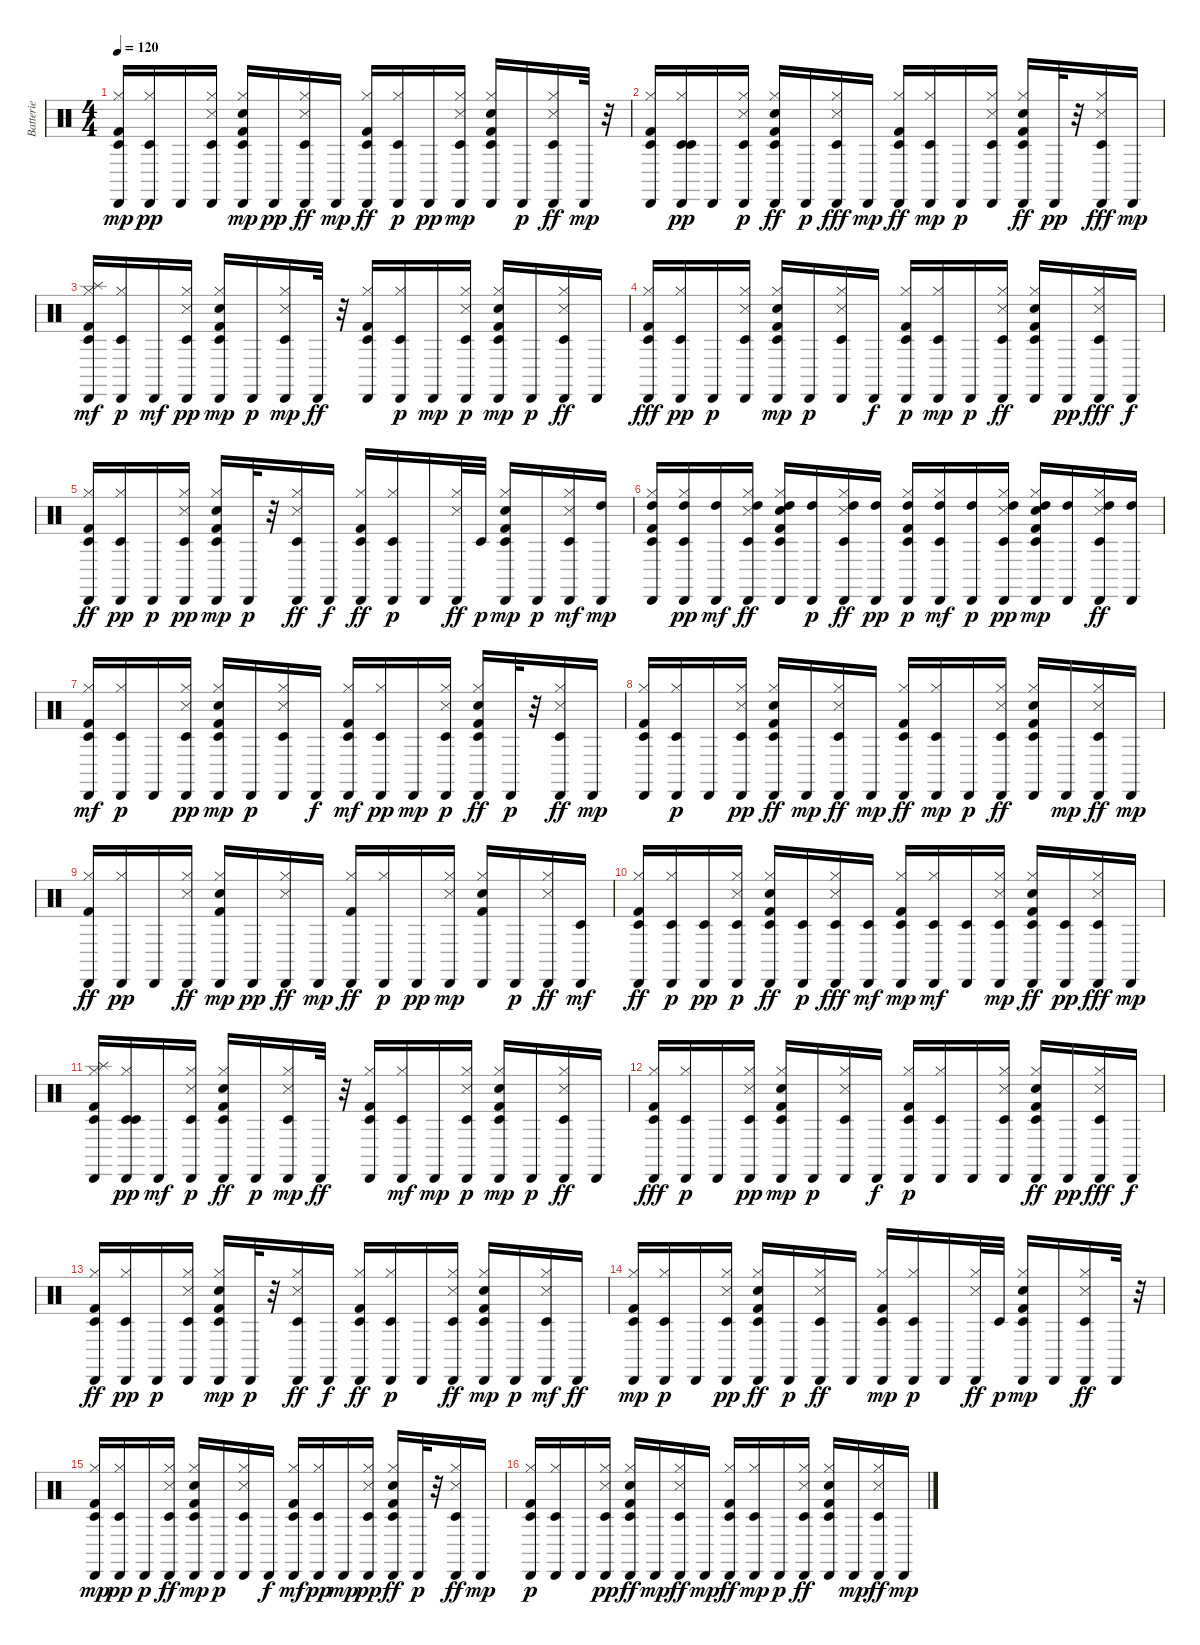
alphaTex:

\track ("Batterie" "Batterie") {instrument percussion}
\staff {score}
\articulation defaults
\ts (4 4)
\tempo 120
\clef neutral
\ks c
("Kick (hit) 2" "Cabasa (hit)" "Hi-Hat (closed)" "Timbale low (hit)").16{dy mp} ("Hi-Hat (closed)" "Timbale low (hit)" "Cabasa (hit)").16{dy pp} "Cabasa (hit)".16 ("Snare (side stick) 3" "Cabasa (hit)" "Hi-Hat (closed)" "Timbale low (hit)").16 ("Timbale low (hit)" "Kick (hit) 2" "Hi-Hat (closed)" "Cabasa (hit)" "Hand Clap (hit)").16{dy mp} "Cabasa (hit)".16{dy pp} ("Cabasa (hit)" "Timbale low (hit)" "Snare (side stick) 3" "Hi-Hat (closed)").16{dy ff} "Cabasa (hit)".16{dy mp} ("Timbale low (hit)" "Kick (hit) 2" "Cabasa (hit)" "Hi-Hat (closed)").16{dy ff} ("Hi-Hat (closed)" "Timbale low (hit)" "Cabasa (hit)").16{dy p} "Cabasa (hit)".16{dy pp} ("Snare (side stick) 3" "Timbale low (hit)" "Cabasa (hit)" "Hi-Hat (closed)").16{dy mp} ("Timbale low (hit)" "Kick (hit) 2" "Hand Clap (hit)" "Cabasa (hit)" "Hi-Hat (closed)").16 "Cabasa (hit)".16{dy p} ("Cabasa (hit)" "Hi-Hat (closed)" "Snare (side stick) 3" "Timbale low (hit)").16{dy ff} "Cabasa (hit)".32{dy mp} r.32 |
("Kick (hit) 2" "Cabasa (hit)" "Hi-Hat (closed)" "Timbale low (hit)").16 ("Hi-Hat (closed)" "Cabasa (hit)" "Timbale low (hit)" "Timbale low (hit)").16{dy pp} "Cabasa (hit)".16 ("Cabasa (hit)" "Snare (side stick) 3" "Hi-Hat (closed)" "Timbale low (hit)").16{dy p} ("Timbale low (hit)" "Hi-Hat (closed)" "Kick (hit) 2" "Cabasa (hit)" "Hand Clap (hit)").16{dy ff} "Cabasa (hit)".16{dy p} ("Timbale low (hit)" "Cabasa (hit)" "Hi-Hat (closed)" "Snare (side stick) 3").16{dy fff} "Cabasa (hit)".16{dy mp} ("Timbale low (hit)" "Kick (hit) 2" "Cabasa (hit)" "Hi-Hat (closed)").16{dy ff} ("Hi-Hat (closed)" "Timbale low (hit)" "Cabasa (hit)").16{dy mp} "Cabasa (hit)".16{dy p} ("Hi-Hat (closed)" "Cabasa (hit)" "Snare (side stick) 3" "Timbale low (hit)").16 ("Hi-Hat (closed)" "Timbale low (hit)" "Kick (hit) 2" "Cabasa (hit)" "Hand Clap (hit)").16{dy ff} "Cabasa (hit)".32{dy pp} r.32 ("Cabasa (hit)" "Hi-Hat (closed)" "Timbale low (hit)" "Snare (side stick) 3").16{dy fff} "Cabasa (hit)".16{dy mp} |
("Hi-Hat (closed)" "Splash (hit)" "Kick (hit) 2" "Cabasa (hit)" "Timbale low (hit)").16{dy mf} ("Hi-Hat (closed)" "Cabasa (hit)" "Timbale low (hit)").16{dy p} "Cabasa (hit)".16{dy mf} ("Cabasa (hit)" "Snare (side stick) 3" "Hi-Hat (closed)" "Timbale low (hit)").16{dy pp} ("Hand Clap (hit)" "Hi-Hat (closed)" "Cabasa (hit)" "Kick (hit) 2" "Timbale low (hit)").16{dy mp} "Cabasa (hit)".16{dy p} ("Cabasa (hit)" "Snare (side stick) 3" "Hi-Hat (closed)" "Timbale low (hit)").16{dy mp} "Cabasa (hit)".32{dy ff} r.32 ("Cabasa (hit)" "Kick (hit) 2" "Timbale low (hit)" "Hi-Hat (closed)").16 ("Cabasa (hit)" "Hi-Hat (closed)" "Timbale low (hit)").16{dy p} "Cabasa (hit)".16{dy mp} ("Snare (side stick) 3" "Cabasa (hit)" "Timbale low (hit)" "Hi-Hat (closed)").16{dy p} ("Timbale low (hit)" "Cabasa (hit)" "Hand Clap (hit)" "Kick (hit) 2" "Hi-Hat (closed)").16{dy mp} "Cabasa (hit)".16{dy p} ("Timbale low (hit)" "Cabasa (hit)" "Snare (side stick) 3" "Hi-Hat (closed)").16{dy ff} "Cabasa (hit)".16 |
("Timbale low (hit)" "Cabasa (hit)" "Kick (hit) 2" "Hi-Hat (closed)").16{dy fff} ("Hi-Hat (closed)" "Timbale low (hit)" "Cabasa (hit)").16{dy pp} "Cabasa (hit)".16{dy p} ("Cabasa (hit)" "Snare (side stick) 3" "Timbale low (hit)" "Hi-Hat (closed)").16 ("Timbale low (hit)" "Kick (hit) 2" "Hi-Hat (closed)" "Cabasa (hit)" "Hand Clap (hit)").16{dy mp} "Cabasa (hit)".16{dy p} ("Timbale low (hit)" "Hi-Hat (closed)" "Cabasa (hit)" "Snare (side stick) 3").16 "Cabasa (hit)".16{dy f} ("Timbale low (hit)" "Kick (hit) 2" "Hi-Hat (closed)" "Cabasa (hit)").16{dy p} ("Timbale low (hit)" "Hi-Hat (closed)" "Cabasa (hit)").16{dy mp} "Cabasa (hit)".16{dy p} ("Cabasa (hit)" "Timbale low (hit)" "Hi-Hat (closed)" "Snare (side stick) 3").16{dy ff} ("Timbale low (hit)" "Hi-Hat (closed)" "Cabasa (hit)" "Kick (hit) 2" "Hand Clap (hit)").16 "Cabasa (hit)".16{dy pp} ("Cabasa (hit)" "Timbale low (hit)" "Hi-Hat (closed)" "Snare (side stick) 3").16{dy fff} "Cabasa (hit)".16{dy f} |
("Kick (hit) 2" "Cabasa (hit)" "Timbale low (hit)" "Hi-Hat (closed)").16{dy ff} ("Hi-Hat (closed)" "Timbale low (hit)" "Cabasa (hit)").16{dy pp} "Cabasa (hit)".16{dy p} ("Cabasa (hit)" "Snare (side stick) 3" "Hi-Hat (closed)" "Timbale low (hit)").16{dy pp} ("Kick (hit) 2" "Hi-Hat (closed)" "Timbale low (hit)" "Cabasa (hit)" "Hand Clap (hit)").16{dy mp} "Cabasa (hit)".32{dy p} r.32 ("Cabasa (hit)" "Snare (side stick) 3" "Timbale low (hit)" "Hi-Hat (closed)").16{dy ff} "Cabasa (hit)".16{dy f} ("Kick (hit) 2" "Cabasa (hit)" "Timbale low (hit)" "Hi-Hat (closed)").16{dy ff} ("Hi-Hat (closed)" "Cabasa (hit)" "Timbale low (hit)").16{dy p} "Cabasa (hit)".16 ("Cabasa (hit)" "Snare (side stick) 3" "Hi-Hat (closed)").32{dy ff} "Timbale low (hit)".32{dy p} ("Hi-Hat (closed)" "Kick (hit) 2" "Hand Clap (hit)" "Timbale low (hit)" "Cabasa (hit)").16{dy mp} "Cabasa (hit)".16{dy p} ("Cabasa (hit)" "Snare (side stick) 3" "Hi-Hat (closed)" "Timbale low (hit)").16{dy mf} ("Cabasa (hit)" "High Tom (hit)").16{dy mp} |
("Cabasa (hit)" "Kick (hit) 2" "High Tom (hit)" "Hi-Hat (closed)" "Timbale low (hit)").16 ("Hi-Hat (closed)" "Cabasa (hit)" "High Tom (hit)" "Timbale low (hit)").16{dy pp} ("Cabasa (hit)" "High Tom (hit)").16{dy mf} ("High Tom (hit)" "Cabasa (hit)" "Timbale low (hit)" "Snare (side stick) 3" "Hi-Hat (closed)").16{dy ff} ("High Tom (hit)" "Hi-Hat (closed)" "Timbale low (hit)" "Cabasa (hit)" "Kick (hit) 2" "Hand Clap (hit)").16 ("High Tom (hit)" "Cabasa (hit)").16{dy p} ("High Tom (hit)" "Cabasa (hit)" "Snare (side stick) 3" "Timbale low (hit)" "Hi-Hat (closed)").16{dy ff} ("Cabasa (hit)" "High Tom (hit)").16{dy pp} ("High Tom (hit)" "Timbale low (hit)" "Kick (hit) 2" "Cabasa (hit)" "Hi-Hat (closed)").16{dy p} ("Timbale low (hit)" "High Tom (hit)" "Cabasa (hit)" "Hi-Hat (closed)").16{dy mf} ("Cabasa (hit)" "High Tom (hit)").16{dy p} ("High Tom (hit)" "Cabasa (hit)" "Timbale low (hit)" "Snare (side stick) 3" "Hi-Hat (closed)").16{dy pp} ("Timbale low (hit)" "High Tom (hit)" "Cabasa (hit)" "Kick (hit) 2" "Hi-Hat (closed)" "Hand Clap (hit)").16{dy mp} ("High Tom (hit)" "Cabasa (hit)").16 ("High Tom (hit)" "Cabasa (hit)" "Timbale low (hit)" "Hi-Hat (closed)" "Snare (side stick) 3").16{dy ff} ("High Tom (hit)" "Cabasa (hit)").16 |
("Kick (hit) 2" "Cabasa (hit)" "Timbale low (hit)" "Hi-Hat (closed)").16{dy mf} ("Timbale low (hit)" "Hi-Hat (closed)" "Cabasa (hit)").16{dy p} "Cabasa (hit)".16 ("Cabasa (hit)" "Snare (side stick) 3" "Hi-Hat (closed)" "Timbale low (hit)").16{dy pp} ("Timbale low (hit)" "Kick (hit) 2" "Hi-Hat (closed)" "Cabasa (hit)" "Hand Clap (hit)").16{dy mp} "Cabasa (hit)".16{dy p} ("Timbale low (hit)" "Snare (side stick) 3" "Cabasa (hit)" "Hi-Hat (closed)").16 "Cabasa (hit)".16{dy f} ("Timbale low (hit)" "Kick (hit) 2" "Cabasa (hit)" "Hi-Hat (closed)").16{dy mf} ("Timbale low (hit)" "Hi-Hat (closed)" "Cabasa (hit)").16{dy pp} "Cabasa (hit)".16{dy mp} ("Cabasa (hit)" "Snare (side stick) 3" "Timbale low (hit)" "Hi-Hat (closed)").16{dy p} ("Timbale low (hit)" "Hi-Hat (closed)" "Kick (hit) 2" "Cabasa (hit)" "Hand Clap (hit)").16{dy ff} "Cabasa (hit)".32{dy p} r.32 ("Hi-Hat (closed)" "Cabasa (hit)" "Snare (side stick) 3" "Timbale low (hit)").16{dy ff} "Cabasa (hit)".16{dy mp} |
("Kick (hit) 2" "Cabasa (hit)" "Hi-Hat (closed)" "Timbale low (hit)").16 ("Hi-Hat (closed)" "Timbale low (hit)" "Cabasa (hit)").16{dy p} "Cabasa (hit)".16 ("Cabasa (hit)" "Snare (side stick) 3" "Hi-Hat (closed)" "Timbale low (hit)").16{dy pp} ("Hi-Hat (closed)" "Timbale low (hit)" "Cabasa (hit)" "Kick (hit) 2" "Hand Clap (hit)").16{dy ff} "Cabasa (hit)".16{dy mp} ("Cabasa (hit)" "Timbale low (hit)" "Snare (side stick) 3" "Hi-Hat (closed)").16{dy ff} "Cabasa (hit)".16{dy mp} ("Timbale low (hit)" "Cabasa (hit)" "Kick (hit) 2" "Hi-Hat (closed)").16{dy ff} ("Hi-Hat (closed)" "Timbale low (hit)" "Cabasa (hit)").16{dy mp} "Cabasa (hit)".16{dy p} ("Timbale low (hit)" "Cabasa (hit)" "Snare (side stick) 3" "Hi-Hat (closed)").16{dy ff} ("Timbale low (hit)" "Hi-Hat (closed)" "Kick (hit) 2" "Cabasa (hit)" "Hand Clap (hit)").16 "Cabasa (hit)".16{dy mp} ("Cabasa (hit)" "Timbale low (hit)" "Hi-Hat (closed)" "Snare (side stick) 3").16{dy ff} "Cabasa (hit)".16{dy mp} |
("Kick (hit) 2" "Cabasa (hit)" "Hi-Hat (closed)").16{dy ff} ("Hi-Hat (closed)" "Cabasa (hit)").16{dy pp} "Cabasa (hit)".16 ("Snare (side stick) 3" "Cabasa (hit)" "Hi-Hat (closed)").16{dy ff} ("Kick (hit) 2" "Hi-Hat (closed)" "Cabasa (hit)" "Hand Clap (hit)").16{dy mp} "Cabasa (hit)".16{dy pp} ("Cabasa (hit)" "Snare (side stick) 3" "Hi-Hat (closed)").16{dy ff} "Cabasa (hit)".16{dy mp} ("Kick (hit) 2" "Cabasa (hit)" "Hi-Hat (closed)").16{dy ff} ("Hi-Hat (closed)" "Cabasa (hit)").16{dy p} "Cabasa (hit)".16{dy pp} ("Snare (side stick) 3" "Cabasa (hit)" "Hi-Hat (closed)").16{dy mp} ("Kick (hit) 2" "Hand Clap (hit)" "Cabasa (hit)" "Hi-Hat (closed)").16 "Cabasa (hit)".16{dy p} ("Cabasa (hit)" "Hi-Hat (closed)" "Snare (side stick) 3").16{dy ff} ("Cabasa (hit)" "Timbale low (hit)").16{dy mf} |
("Timbale low (hit)" "Kick (hit) 2" "Cabasa (hit)" "Hi-Hat (closed)").16{dy ff} ("Timbale low (hit)" "Hi-Hat (closed)" "Cabasa (hit)").16{dy p} ("Timbale low (hit)" "Cabasa (hit)").16{dy pp} ("Timbale low (hit)" "Cabasa (hit)" "Snare (side stick) 3" "Hi-Hat (closed)").16{dy p} ("Hi-Hat (closed)" "Timbale low (hit)" "Kick (hit) 2" "Cabasa (hit)" "Hand Clap (hit)").16{dy ff} ("Timbale low (hit)" "Cabasa (hit)").16{dy p} ("Cabasa (hit)" "Hi-Hat (closed)" "Timbale low (hit)" "Snare (side stick) 3").16{dy fff} ("Cabasa (hit)" "Timbale low (hit)").16{dy mf} ("Kick (hit) 2" "Cabasa (hit)" "Hi-Hat (closed)" "Timbale low (hit)").16{dy mp} ("Hi-Hat (closed)" "Cabasa (hit)" "Timbale low (hit)").16{dy mf} ("Cabasa (hit)" "Timbale low (hit)").16 ("Hi-Hat (closed)" "Cabasa (hit)" "Snare (side stick) 3" "Timbale low (hit)").16{dy mp} ("Hi-Hat (closed)" "Kick (hit) 2" "Cabasa (hit)" "Hand Clap (hit)" "Timbale low (hit)").16{dy ff} ("Timbale low (hit)" "Cabasa (hit)").16{dy pp} ("Cabasa (hit)" "Hi-Hat (closed)" "Timbale low (hit)" "Snare (side stick) 3").16{dy fff} "Cabasa (hit)".16{dy mp} |
("Hi-Hat (closed)" "Splash (hit)" "Kick (hit) 2" "Cabasa (hit)" "Timbale low (hit)").16 ("Hi-Hat (closed)" "Cabasa (hit)" "Timbale low (hit)" "Timbale low (hit)").16{dy pp} "Cabasa (hit)".16{dy mf} ("Cabasa (hit)" "Snare (side stick) 3" "Hi-Hat (closed)" "Timbale low (hit)").16{dy p} ("Timbale low (hit)" "Hand Clap (hit)" "Hi-Hat (closed)" "Cabasa (hit)" "Kick (hit) 2").16{dy ff} "Cabasa (hit)".16{dy p} ("Timbale low (hit)" "Cabasa (hit)" "Snare (side stick) 3" "Hi-Hat (closed)").16{dy mp} "Cabasa (hit)".32{dy ff} r.32 ("Timbale low (hit)" "Cabasa (hit)" "Kick (hit) 2" "Hi-Hat (closed)").16 ("Timbale low (hit)" "Cabasa (hit)" "Hi-Hat (closed)").16{dy mf} "Cabasa (hit)".16{dy mp} ("Snare (side stick) 3" "Cabasa (hit)" "Timbale low (hit)" "Hi-Hat (closed)").16{dy p} ("Timbale low (hit)" "Cabasa (hit)" "Hand Clap (hit)" "Kick (hit) 2" "Hi-Hat (closed)").16{dy mp} "Cabasa (hit)".16{dy p} ("Cabasa (hit)" "Snare (side stick) 3" "Timbale low (hit)" "Hi-Hat (closed)").16{dy ff} "Cabasa (hit)".16 |
("Cabasa (hit)" "Kick (hit) 2" "Timbale low (hit)" "Hi-Hat (closed)").16{dy fff} ("Hi-Hat (closed)" "Cabasa (hit)" "Timbale low (hit)").16{dy p} "Cabasa (hit)".16 ("Cabasa (hit)" "Snare (side stick) 3" "Hi-Hat (closed)" "Timbale low (hit)").16{dy pp} ("Kick (hit) 2" "Hi-Hat (closed)" "Cabasa (hit)" "Hand Clap (hit)" "Timbale low (hit)").16{dy mp} "Cabasa (hit)".16{dy p} ("Hi-Hat (closed)" "Cabasa (hit)" "Snare (side stick) 3" "Timbale low (hit)").16 "Cabasa (hit)".16{dy f} ("Kick (hit) 2" "Timbale low (hit)" "Hi-Hat (closed)" "Cabasa (hit)").16{dy p} ("Hi-Hat (closed)" "Cabasa (hit)" "Timbale low (hit)").16 "Cabasa (hit)".16 ("Cabasa (hit)" "Hi-Hat (closed)" "Snare (side stick) 3" "Timbale low (hit)").16 ("Timbale low (hit)" "Hi-Hat (closed)" "Cabasa (hit)" "Kick (hit) 2" "Hand Clap (hit)").16{dy ff} "Cabasa (hit)".16{dy pp} ("Timbale low (hit)" "Cabasa (hit)" "Hi-Hat (closed)" "Snare (side stick) 3").16{dy fff} "Cabasa (hit)".16{dy f} |
("Kick (hit) 2" "Timbale low (hit)" "Cabasa (hit)" "Hi-Hat (closed)").16{dy ff} ("Hi-Hat (closed)" "Timbale low (hit)" "Cabasa (hit)").16{dy pp} "Cabasa (hit)".16{dy p} ("Cabasa (hit)" "Snare (side stick) 3" "Timbale low (hit)" "Hi-Hat (closed)").16 ("Timbale low (hit)" "Kick (hit) 2" "Hi-Hat (closed)" "Cabasa (hit)" "Hand Clap (hit)").16{dy mp} "Cabasa (hit)".32{dy p} r.32 ("Cabasa (hit)" "Timbale low (hit)" "Snare (side stick) 3" "Hi-Hat (closed)").16{dy ff} "Cabasa (hit)".16{dy f} ("Timbale low (hit)" "Kick (hit) 2" "Cabasa (hit)" "Hi-Hat (closed)").16{dy ff} ("Timbale low (hit)" "Hi-Hat (closed)" "Cabasa (hit)").16{dy p} "Cabasa (hit)".16 ("Timbale low (hit)" "Cabasa (hit)" "Snare (side stick) 3" "Hi-Hat (closed)").16{dy ff} ("Timbale low (hit)" "Hi-Hat (closed)" "Kick (hit) 2" "Hand Clap (hit)" "Cabasa (hit)").16{dy mp} "Cabasa (hit)".16{dy p} ("Cabasa (hit)" "Timbale low (hit)" "Snare (side stick) 3" "Hi-Hat (closed)").16{dy mf} "Cabasa (hit)".16{dy ff} |
("Cabasa (hit)" "Kick (hit) 2" "Timbale low (hit)" "Hi-Hat (closed)").16{dy mp} ("Hi-Hat (closed)" "Timbale low (hit)" "Cabasa (hit)").16{dy p} "Cabasa (hit)".16 ("Cabasa (hit)" "Snare (side stick) 3" "Hi-Hat (closed)" "Timbale low (hit)").16{dy pp} ("Hi-Hat (closed)" "Timbale low (hit)" "Cabasa (hit)" "Kick (hit) 2" "Hand Clap (hit)").16{dy ff} "Cabasa (hit)".16{dy p} ("Cabasa (hit)" "Timbale low (hit)" "Snare (side stick) 3" "Hi-Hat (closed)").16{dy ff} "Cabasa (hit)".16 ("Kick (hit) 2" "Cabasa (hit)" "Timbale low (hit)" "Hi-Hat (closed)").16{dy mp} ("Cabasa (hit)" "Hi-Hat (closed)" "Timbale low (hit)").16{dy p} "Cabasa (hit)".16 ("Cabasa (hit)" "Snare (side stick) 3" "Hi-Hat (closed)").32{dy ff} "Timbale low (hit)".32{dy p} ("Cabasa (hit)" "Kick (hit) 2" "Timbale low (hit)" "Hi-Hat (closed)" "Hand Clap (hit)").16{dy mp} "Cabasa (hit)".16 ("Cabasa (hit)" "Hi-Hat (closed)" "Snare (side stick) 3" "Timbale low (hit)").16{dy ff} "Cabasa (hit)".32 r.32 |
("Kick (hit) 2" "Cabasa (hit)" "Hi-Hat (closed)" "Timbale low (hit)").16{dy mp} ("Hi-Hat (closed)" "Cabasa (hit)" "Timbale low (hit)").16{dy pp} "Cabasa (hit)".16{dy p} ("Cabasa (hit)" "Snare (side stick) 3" "Timbale low (hit)" "Hi-Hat (closed)").16{dy ff} ("Kick (hit) 2" "Timbale low (hit)" "Hi-Hat (closed)" "Cabasa (hit)" "Hand Clap (hit)").16{dy mp} "Cabasa (hit)".16{dy p} ("Snare (side stick) 3" "Cabasa (hit)" "Hi-Hat (closed)" "Timbale low (hit)").16 "Cabasa (hit)".16{dy f} ("Kick (hit) 2" "Timbale low (hit)" "Cabasa (hit)" "Hi-Hat (closed)").16{dy mf} ("Hi-Hat (closed)" "Timbale low (hit)" "Cabasa (hit)").16{dy pp} "Cabasa (hit)".16{dy mp} ("Cabasa (hit)" "Snare (side stick) 3" "Hi-Hat (closed)" "Timbale low (hit)").16{dy pp} ("Timbale low (hit)" "Hi-Hat (closed)" "Kick (hit) 2" "Cabasa (hit)" "Hand Clap (hit)").16{dy ff} "Cabasa (hit)".32{dy p} r.32 ("Hi-Hat (closed)" "Cabasa (hit)" "Timbale low (hit)" "Snare (side stick) 3").16{dy ff} "Cabasa (hit)".16{dy mp} |
("Kick (hit) 2" "Cabasa (hit)" "Hi-Hat (closed)" "Timbale low (hit)").16{dy p} ("Hi-Hat (closed)" "Timbale low (hit)" "Cabasa (hit)").16 "Cabasa (hit)".16 ("Cabasa (hit)" "Snare (side stick) 3" "Hi-Hat (closed)" "Timbale low (hit)").16{dy pp} ("Timbale low (hit)" "Hi-Hat (closed)" "Cabasa (hit)" "Kick (hit) 2" "Hand Clap (hit)").16{dy ff} "Cabasa (hit)".16{dy mp} ("Timbale low (hit)" "Cabasa (hit)" "Snare (side stick) 3" "Hi-Hat (closed)").16{dy ff} "Cabasa (hit)".16{dy mp} ("Timbale low (hit)" "Cabasa (hit)" "Kick (hit) 2" "Hi-Hat (closed)").16{dy ff} ("Timbale low (hit)" "Hi-Hat (closed)" "Cabasa (hit)").16{dy mp} "Cabasa (hit)".16{dy p} ("Cabasa (hit)" "Snare (side stick) 3" "Timbale low (hit)" "Hi-Hat (closed)").16{dy ff} ("Timbale low (hit)" "Hi-Hat (closed)" "Kick (hit) 2" "Cabasa (hit)" "Hand Clap (hit)").16 "Cabasa (hit)".16{dy mp} ("Cabasa (hit)" "Timbale low (hit)" "Hi-Hat (closed)" "Snare (side stick) 3").16{dy ff} "Cabasa (hit)".16{dy mp}
